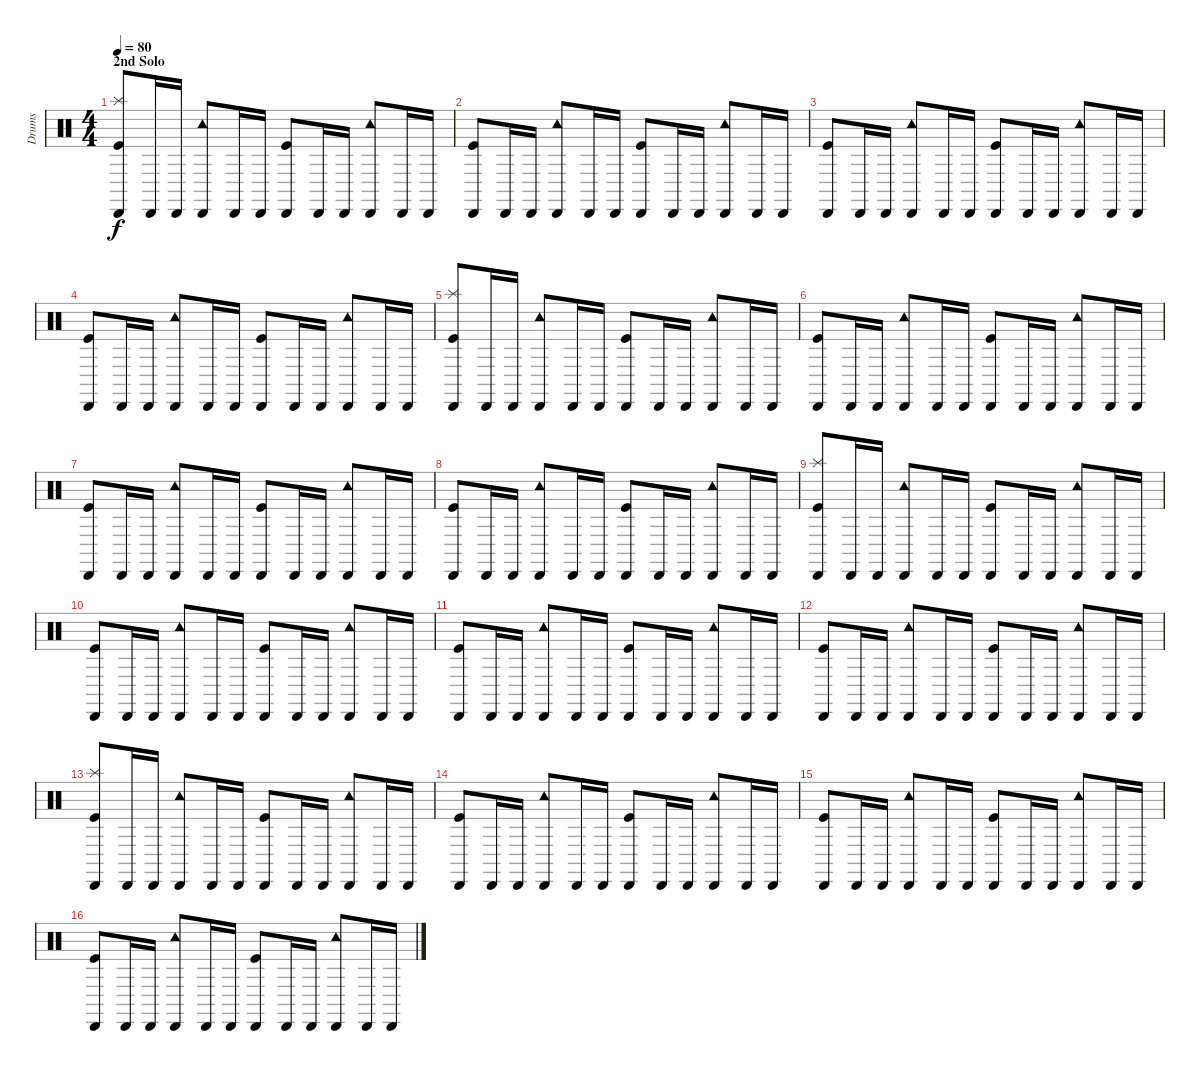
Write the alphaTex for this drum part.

\track ("Drums" "Drums") {instrument percussion}
\staff {score}
\articulation defaults
\ts (4 4)
\section ("" "2nd Solo")
\tempo 80
\clef neutral
\ks c
("Cabasa (hit)" "Splash (hit)" "Kick (hit)").8{dy f} "Cabasa (hit)".16 "Cabasa (hit)".16 ("Cabasa (hit)" "Tambourine (hit)").8 "Cabasa (hit)".16 "Cabasa (hit)".16 ("Cabasa (hit)" "Kick (hit)").8 "Cabasa (hit)".16 "Cabasa (hit)".16 ("Cabasa (hit)" "Tambourine (hit)").8 "Cabasa (hit)".16 "Cabasa (hit)".16 |
("Cabasa (hit)" "Kick (hit)").8 "Cabasa (hit)".16 "Cabasa (hit)".16 ("Cabasa (hit)" "Tambourine (hit)").8 "Cabasa (hit)".16 "Cabasa (hit)".16 ("Cabasa (hit)" "Kick (hit)").8 "Cabasa (hit)".16 "Cabasa (hit)".16 ("Cabasa (hit)" "Tambourine (hit)").8 "Cabasa (hit)".16 "Cabasa (hit)".16 |
("Cabasa (hit)" "Kick (hit)").8 "Cabasa (hit)".16 "Cabasa (hit)".16 ("Cabasa (hit)" "Tambourine (hit)").8 "Cabasa (hit)".16 "Cabasa (hit)".16 ("Cabasa (hit)" "Kick (hit)").8 "Cabasa (hit)".16 "Cabasa (hit)".16 ("Cabasa (hit)" "Tambourine (hit)").8 "Cabasa (hit)".16 "Cabasa (hit)".16 |
("Cabasa (hit)" "Kick (hit)").8 "Cabasa (hit)".16 "Cabasa (hit)".16 ("Cabasa (hit)" "Tambourine (hit)").8 "Cabasa (hit)".16 "Cabasa (hit)".16 ("Cabasa (hit)" "Kick (hit)").8 "Cabasa (hit)".16 "Cabasa (hit)".16 ("Cabasa (hit)" "Tambourine (hit)").8 "Cabasa (hit)".16 "Cabasa (hit)".16 |
("Cabasa (hit)" "Splash (hit)" "Kick (hit)").8 "Cabasa (hit)".16 "Cabasa (hit)".16 ("Cabasa (hit)" "Tambourine (hit)").8 "Cabasa (hit)".16 "Cabasa (hit)".16 ("Cabasa (hit)" "Kick (hit)").8 "Cabasa (hit)".16 "Cabasa (hit)".16 ("Cabasa (hit)" "Tambourine (hit)").8 "Cabasa (hit)".16 "Cabasa (hit)".16 |
("Cabasa (hit)" "Kick (hit)").8 "Cabasa (hit)".16 "Cabasa (hit)".16 ("Cabasa (hit)" "Tambourine (hit)").8 "Cabasa (hit)".16 "Cabasa (hit)".16 ("Cabasa (hit)" "Kick (hit)").8 "Cabasa (hit)".16 "Cabasa (hit)".16 ("Cabasa (hit)" "Tambourine (hit)").8 "Cabasa (hit)".16 "Cabasa (hit)".16 |
("Cabasa (hit)" "Kick (hit)").8 "Cabasa (hit)".16 "Cabasa (hit)".16 ("Cabasa (hit)" "Tambourine (hit)").8 "Cabasa (hit)".16 "Cabasa (hit)".16 ("Cabasa (hit)" "Kick (hit)").8 "Cabasa (hit)".16 "Cabasa (hit)".16 ("Cabasa (hit)" "Tambourine (hit)").8 "Cabasa (hit)".16 "Cabasa (hit)".16 |
("Cabasa (hit)" "Kick (hit)").8 "Cabasa (hit)".16 "Cabasa (hit)".16 ("Cabasa (hit)" "Tambourine (hit)").8 "Cabasa (hit)".16 "Cabasa (hit)".16 ("Cabasa (hit)" "Kick (hit)").8 "Cabasa (hit)".16 "Cabasa (hit)".16 ("Cabasa (hit)" "Tambourine (hit)").8 "Cabasa (hit)".16 "Cabasa (hit)".16 |
("Cabasa (hit)" "Splash (hit)" "Kick (hit)").8 "Cabasa (hit)".16 "Cabasa (hit)".16 ("Cabasa (hit)" "Tambourine (hit)").8 "Cabasa (hit)".16 "Cabasa (hit)".16 ("Cabasa (hit)" "Kick (hit)").8 "Cabasa (hit)".16 "Cabasa (hit)".16 ("Cabasa (hit)" "Tambourine (hit)").8 "Cabasa (hit)".16 "Cabasa (hit)".16 |
("Cabasa (hit)" "Kick (hit)").8 "Cabasa (hit)".16 "Cabasa (hit)".16 ("Cabasa (hit)" "Tambourine (hit)").8 "Cabasa (hit)".16 "Cabasa (hit)".16 ("Cabasa (hit)" "Kick (hit)").8 "Cabasa (hit)".16 "Cabasa (hit)".16 ("Cabasa (hit)" "Tambourine (hit)").8 "Cabasa (hit)".16 "Cabasa (hit)".16 |
("Cabasa (hit)" "Kick (hit)").8 "Cabasa (hit)".16 "Cabasa (hit)".16 ("Cabasa (hit)" "Tambourine (hit)").8 "Cabasa (hit)".16 "Cabasa (hit)".16 ("Cabasa (hit)" "Kick (hit)").8 "Cabasa (hit)".16 "Cabasa (hit)".16 ("Cabasa (hit)" "Tambourine (hit)").8 "Cabasa (hit)".16 "Cabasa (hit)".16 |
("Cabasa (hit)" "Kick (hit)").8 "Cabasa (hit)".16 "Cabasa (hit)".16 ("Cabasa (hit)" "Tambourine (hit)").8 "Cabasa (hit)".16 "Cabasa (hit)".16 ("Cabasa (hit)" "Kick (hit)").8 "Cabasa (hit)".16 "Cabasa (hit)".16 ("Cabasa (hit)" "Tambourine (hit)").8 "Cabasa (hit)".16 "Cabasa (hit)".16 |
("Cabasa (hit)" "Splash (hit)" "Kick (hit)").8 "Cabasa (hit)".16 "Cabasa (hit)".16 ("Cabasa (hit)" "Tambourine (hit)").8 "Cabasa (hit)".16 "Cabasa (hit)".16 ("Cabasa (hit)" "Kick (hit)").8 "Cabasa (hit)".16 "Cabasa (hit)".16 ("Cabasa (hit)" "Tambourine (hit)").8 "Cabasa (hit)".16 "Cabasa (hit)".16 |
("Cabasa (hit)" "Kick (hit)").8 "Cabasa (hit)".16 "Cabasa (hit)".16 ("Cabasa (hit)" "Tambourine (hit)").8 "Cabasa (hit)".16 "Cabasa (hit)".16 ("Cabasa (hit)" "Kick (hit)").8 "Cabasa (hit)".16 "Cabasa (hit)".16 ("Cabasa (hit)" "Tambourine (hit)").8 "Cabasa (hit)".16 "Cabasa (hit)".16 |
("Cabasa (hit)" "Kick (hit)").8 "Cabasa (hit)".16 "Cabasa (hit)".16 ("Cabasa (hit)" "Tambourine (hit)").8 "Cabasa (hit)".16 "Cabasa (hit)".16 ("Cabasa (hit)" "Kick (hit)").8 "Cabasa (hit)".16 "Cabasa (hit)".16 ("Cabasa (hit)" "Tambourine (hit)").8 "Cabasa (hit)".16 "Cabasa (hit)".16 |
("Cabasa (hit)" "Kick (hit)").8 "Cabasa (hit)".16 "Cabasa (hit)".16 ("Cabasa (hit)" "Tambourine (hit)").8 "Cabasa (hit)".16 "Cabasa (hit)".16 ("Cabasa (hit)" "Kick (hit)").8 "Cabasa (hit)".16 "Cabasa (hit)".16 ("Cabasa (hit)" "Tambourine (hit)").8 "Cabasa (hit)".16 "Cabasa (hit)".16
